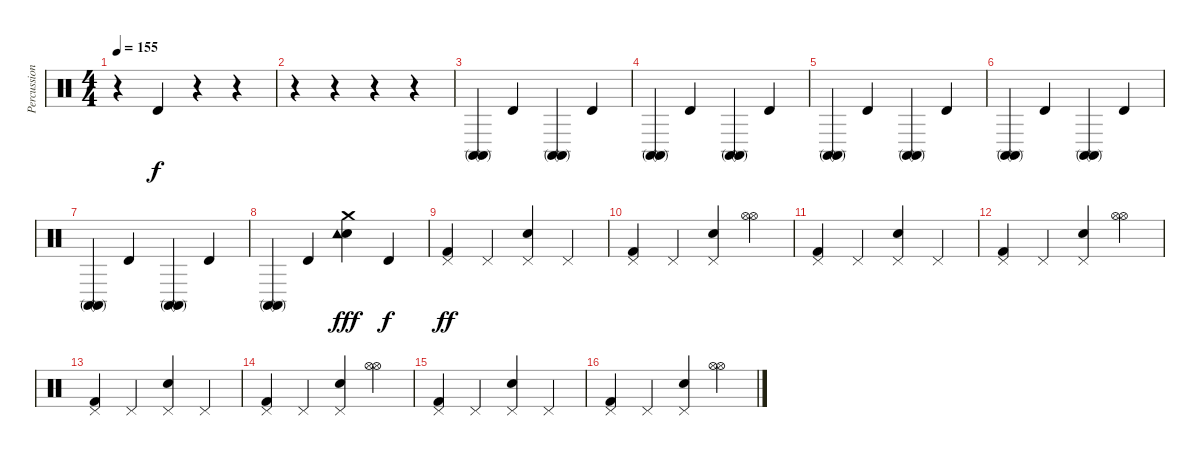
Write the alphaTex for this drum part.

\track ("Percussions" "Percussion") {instrument percussion}
\staff {score}
\articulation defaults
\ts (4 4)
\tempo 155
\clef neutral
\ks c
r.4{dy f} "Timbale high (hit)".4 r.4 r.4 |
r.4 r.4 r.4 r.4 |
("Conga high (mute)" "Conga high (mute)").4 "Timbale high (hit)".4 ("Conga high (mute)" "Conga high (mute)").4 "Timbale high (hit)".4 |
("Conga high (mute)" "Conga high (mute)").4 "Timbale high (hit)".4 ("Conga high (mute)" "Conga high (mute)").4 "Timbale high (hit)".4 |
("Conga high (mute)" "Conga high (mute)").4 "Timbale high (hit)".4 ("Conga high (mute)" "Conga high (mute)").4 "Timbale high (hit)".4 |
("Conga high (mute)" "Conga high (mute)").4 "Timbale high (hit)".4 ("Conga high (mute)" "Conga high (mute)").4 "Timbale high (hit)".4 |
("Conga high (mute)" "Conga high (mute)").4 "Timbale high (hit)".4 ("Conga high (mute)" "Conga high (mute)").4 "Timbale high (hit)".4 |
("Conga high (mute)" "Conga high (mute)").4 "Timbale high (hit)".4 ("Electric Snare (hit)" "Tambourine (hit)" "Crash medium (hit)").4{dy fff} "Timbale high (hit)".4{dy f} |
("Pedal Hi-Hat (hit)" "Kick (hit) 2").4{dy ff} "Pedal Hi-Hat (hit)".4 ("Pedal Hi-Hat (hit)" "Electric Snare (hit)").4 "Pedal Hi-Hat (hit)".4 |
("Pedal Hi-Hat (hit)" "Kick (hit) 2").4 "Pedal Hi-Hat (hit)".4 ("Pedal Hi-Hat (hit)" "Electric Snare (hit)").4 ("Hi-Hat (open)" "Hi-Hat (open)").4 |
("Pedal Hi-Hat (hit)" "Kick (hit) 2").4 "Pedal Hi-Hat (hit)".4 ("Pedal Hi-Hat (hit)" "Electric Snare (hit)").4 "Pedal Hi-Hat (hit)".4 |
("Pedal Hi-Hat (hit)" "Kick (hit) 2").4 "Pedal Hi-Hat (hit)".4 ("Pedal Hi-Hat (hit)" "Electric Snare (hit)").4 ("Hi-Hat (open)" "Hi-Hat (open)").4 |
("Pedal Hi-Hat (hit)" "Kick (hit) 2").4 "Pedal Hi-Hat (hit)".4 ("Pedal Hi-Hat (hit)" "Electric Snare (hit)").4 "Pedal Hi-Hat (hit)".4 |
("Pedal Hi-Hat (hit)" "Kick (hit) 2").4 "Pedal Hi-Hat (hit)".4 ("Pedal Hi-Hat (hit)" "Electric Snare (hit)").4 ("Hi-Hat (open)" "Hi-Hat (open)").4 |
("Pedal Hi-Hat (hit)" "Kick (hit) 2").4 "Pedal Hi-Hat (hit)".4 ("Pedal Hi-Hat (hit)" "Electric Snare (hit)").4 "Pedal Hi-Hat (hit)".4 |
("Pedal Hi-Hat (hit)" "Kick (hit) 2").4 "Pedal Hi-Hat (hit)".4 ("Pedal Hi-Hat (hit)" "Electric Snare (hit)").4 ("Hi-Hat (open)" "Hi-Hat (open)").4
